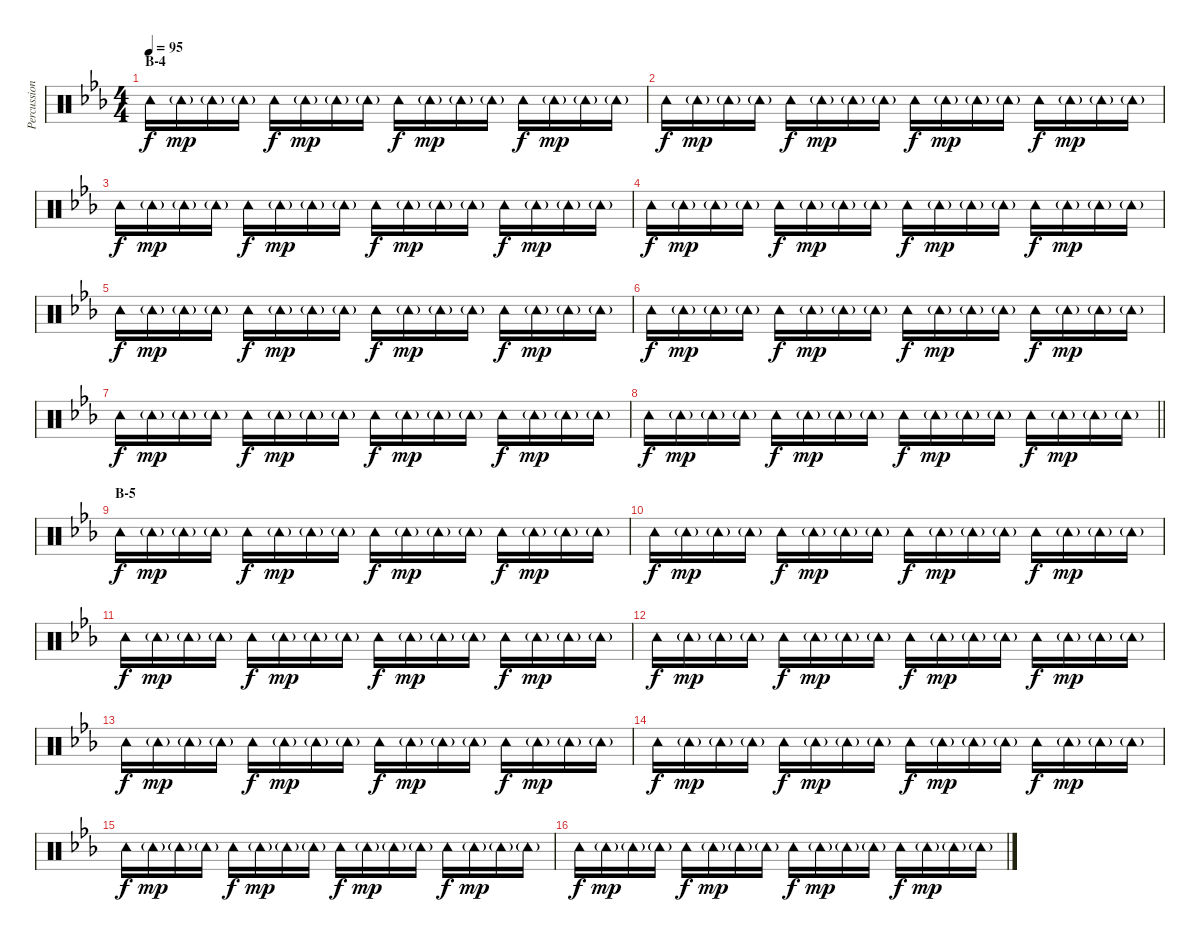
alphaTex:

\track ("Percussion" "Percussion") {instrument percussion}
\staff {score}
\articulation defaults
\ts (4 4)
\section ("" "B-4")
\tempo 95
\clef neutral
\ks cminor "Tambourine (hit)".16{dy f} "Tambourine (hit)"{g}.16{dy mp} "Tambourine (hit)"{g}.16 "Tambourine (hit)"{g}.16 "Tambourine (hit)".16{dy f} "Tambourine (hit)"{g}.16{dy mp} "Tambourine (hit)"{g}.16 "Tambourine (hit)"{g}.16 "Tambourine (hit)".16{dy f} "Tambourine (hit)"{g}.16{dy mp} "Tambourine (hit)"{g}.16 "Tambourine (hit)"{g}.16 "Tambourine (hit)".16{dy f} "Tambourine (hit)"{g}.16{dy mp} "Tambourine (hit)"{g}.16 "Tambourine (hit)"{g}.16
|
"Tambourine (hit)".16{dy f} "Tambourine (hit)"{g}.16{dy mp} "Tambourine (hit)"{g}.16 "Tambourine (hit)"{g}.16 "Tambourine (hit)".16{dy f} "Tambourine (hit)"{g}.16{dy mp} "Tambourine (hit)"{g}.16 "Tambourine (hit)"{g}.16 "Tambourine (hit)".16{dy f} "Tambourine (hit)"{g}.16{dy mp} "Tambourine (hit)"{g}.16 "Tambourine (hit)"{g}.16 "Tambourine (hit)".16{dy f} "Tambourine (hit)"{g}.16{dy mp} "Tambourine (hit)"{g}.16 "Tambourine (hit)"{g}.16 |
"Tambourine (hit)".16{dy f} "Tambourine (hit)"{g}.16{dy mp} "Tambourine (hit)"{g}.16 "Tambourine (hit)"{g}.16 "Tambourine (hit)".16{dy f} "Tambourine (hit)"{g}.16{dy mp} "Tambourine (hit)"{g}.16 "Tambourine (hit)"{g}.16 "Tambourine (hit)".16{dy f} "Tambourine (hit)"{g}.16{dy mp} "Tambourine (hit)"{g}.16 "Tambourine (hit)"{g}.16 "Tambourine (hit)".16{dy f} "Tambourine (hit)"{g}.16{dy mp} "Tambourine (hit)"{g}.16 "Tambourine (hit)"{g}.16 |
"Tambourine (hit)".16{dy f} "Tambourine (hit)"{g}.16{dy mp} "Tambourine (hit)"{g}.16 "Tambourine (hit)"{g}.16 "Tambourine (hit)".16{dy f} "Tambourine (hit)"{g}.16{dy mp} "Tambourine (hit)"{g}.16 "Tambourine (hit)"{g}.16 "Tambourine (hit)".16{dy f} "Tambourine (hit)"{g}.16{dy mp} "Tambourine (hit)"{g}.16 "Tambourine (hit)"{g}.16 "Tambourine (hit)".16{dy f} "Tambourine (hit)"{g}.16{dy mp} "Tambourine (hit)"{g}.16 "Tambourine (hit)"{g}.16 |
"Tambourine (hit)".16{dy f} "Tambourine (hit)"{g}.16{dy mp} "Tambourine (hit)"{g}.16 "Tambourine (hit)"{g}.16 "Tambourine (hit)".16{dy f} "Tambourine (hit)"{g}.16{dy mp} "Tambourine (hit)"{g}.16 "Tambourine (hit)"{g}.16 "Tambourine (hit)".16{dy f} "Tambourine (hit)"{g}.16{dy mp} "Tambourine (hit)"{g}.16 "Tambourine (hit)"{g}.16 "Tambourine (hit)".16{dy f} "Tambourine (hit)"{g}.16{dy mp} "Tambourine (hit)"{g}.16 "Tambourine (hit)"{g}.16 |
"Tambourine (hit)".16{dy f} "Tambourine (hit)"{g}.16{dy mp} "Tambourine (hit)"{g}.16 "Tambourine (hit)"{g}.16 "Tambourine (hit)".16{dy f} "Tambourine (hit)"{g}.16{dy mp} "Tambourine (hit)"{g}.16 "Tambourine (hit)"{g}.16 "Tambourine (hit)".16{dy f} "Tambourine (hit)"{g}.16{dy mp} "Tambourine (hit)"{g}.16 "Tambourine (hit)"{g}.16 "Tambourine (hit)".16{dy f} "Tambourine (hit)"{g}.16{dy mp} "Tambourine (hit)"{g}.16 "Tambourine (hit)"{g}.16 |
"Tambourine (hit)".16{dy f} "Tambourine (hit)"{g}.16{dy mp} "Tambourine (hit)"{g}.16 "Tambourine (hit)"{g}.16 "Tambourine (hit)".16{dy f} "Tambourine (hit)"{g}.16{dy mp} "Tambourine (hit)"{g}.16 "Tambourine (hit)"{g}.16 "Tambourine (hit)".16{dy f} "Tambourine (hit)"{g}.16{dy mp} "Tambourine (hit)"{g}.16 "Tambourine (hit)"{g}.16 "Tambourine (hit)".16{dy f} "Tambourine (hit)"{g}.16{dy mp} "Tambourine (hit)"{g}.16 "Tambourine (hit)"{g}.16 |
\barLineRight lightlight "Tambourine (hit)".16{dy f} "Tambourine (hit)"{g}.16{dy mp} "Tambourine (hit)"{g}.16 "Tambourine (hit)"{g}.16 "Tambourine (hit)".16{dy f} "Tambourine (hit)"{g}.16{dy mp} "Tambourine (hit)"{g}.16 "Tambourine (hit)"{g}.16 "Tambourine (hit)".16{dy f} "Tambourine (hit)"{g}.16{dy mp} "Tambourine (hit)"{g}.16 "Tambourine (hit)"{g}.16 "Tambourine (hit)".16{dy f} "Tambourine (hit)"{g}.16{dy mp} "Tambourine (hit)"{g}.16 "Tambourine (hit)"{g}.16
|
\section ("" "B-5")
"Tambourine (hit)".16{dy f} "Tambourine (hit)"{g}.16{dy mp} "Tambourine (hit)"{g}.16 "Tambourine (hit)"{g}.16 "Tambourine (hit)".16{dy f} "Tambourine (hit)"{g}.16{dy mp} "Tambourine (hit)"{g}.16 "Tambourine (hit)"{g}.16 "Tambourine (hit)".16{dy f} "Tambourine (hit)"{g}.16{dy mp} "Tambourine (hit)"{g}.16 "Tambourine (hit)"{g}.16 "Tambourine (hit)".16{dy f} "Tambourine (hit)"{g}.16{dy mp} "Tambourine (hit)"{g}.16 "Tambourine (hit)"{g}.16 |
"Tambourine (hit)".16{dy f} "Tambourine (hit)"{g}.16{dy mp} "Tambourine (hit)"{g}.16 "Tambourine (hit)"{g}.16 "Tambourine (hit)".16{dy f} "Tambourine (hit)"{g}.16{dy mp} "Tambourine (hit)"{g}.16 "Tambourine (hit)"{g}.16 "Tambourine (hit)".16{dy f} "Tambourine (hit)"{g}.16{dy mp} "Tambourine (hit)"{g}.16 "Tambourine (hit)"{g}.16 "Tambourine (hit)".16{dy f} "Tambourine (hit)"{g}.16{dy mp} "Tambourine (hit)"{g}.16 "Tambourine (hit)"{g}.16 |
"Tambourine (hit)".16{dy f} "Tambourine (hit)"{g}.16{dy mp} "Tambourine (hit)"{g}.16 "Tambourine (hit)"{g}.16 "Tambourine (hit)".16{dy f} "Tambourine (hit)"{g}.16{dy mp} "Tambourine (hit)"{g}.16 "Tambourine (hit)"{g}.16 "Tambourine (hit)".16{dy f} "Tambourine (hit)"{g}.16{dy mp} "Tambourine (hit)"{g}.16 "Tambourine (hit)"{g}.16 "Tambourine (hit)".16{dy f} "Tambourine (hit)"{g}.16{dy mp} "Tambourine (hit)"{g}.16 "Tambourine (hit)"{g}.16 |
"Tambourine (hit)".16{dy f} "Tambourine (hit)"{g}.16{dy mp} "Tambourine (hit)"{g}.16 "Tambourine (hit)"{g}.16 "Tambourine (hit)".16{dy f} "Tambourine (hit)"{g}.16{dy mp} "Tambourine (hit)"{g}.16 "Tambourine (hit)"{g}.16 "Tambourine (hit)".16{dy f} "Tambourine (hit)"{g}.16{dy mp} "Tambourine (hit)"{g}.16 "Tambourine (hit)"{g}.16 "Tambourine (hit)".16{dy f} "Tambourine (hit)"{g}.16{dy mp} "Tambourine (hit)"{g}.16 "Tambourine (hit)"{g}.16 |
"Tambourine (hit)".16{dy f} "Tambourine (hit)"{g}.16{dy mp} "Tambourine (hit)"{g}.16 "Tambourine (hit)"{g}.16 "Tambourine (hit)".16{dy f} "Tambourine (hit)"{g}.16{dy mp} "Tambourine (hit)"{g}.16 "Tambourine (hit)"{g}.16 "Tambourine (hit)".16{dy f} "Tambourine (hit)"{g}.16{dy mp} "Tambourine (hit)"{g}.16 "Tambourine (hit)"{g}.16 "Tambourine (hit)".16{dy f} "Tambourine (hit)"{g}.16{dy mp} "Tambourine (hit)"{g}.16 "Tambourine (hit)"{g}.16 |
"Tambourine (hit)".16{dy f} "Tambourine (hit)"{g}.16{dy mp} "Tambourine (hit)"{g}.16 "Tambourine (hit)"{g}.16 "Tambourine (hit)".16{dy f} "Tambourine (hit)"{g}.16{dy mp} "Tambourine (hit)"{g}.16 "Tambourine (hit)"{g}.16 "Tambourine (hit)".16{dy f} "Tambourine (hit)"{g}.16{dy mp} "Tambourine (hit)"{g}.16 "Tambourine (hit)"{g}.16 "Tambourine (hit)".16{dy f} "Tambourine (hit)"{g}.16{dy mp} "Tambourine (hit)"{g}.16 "Tambourine (hit)"{g}.16 |
"Tambourine (hit)".16{dy f} "Tambourine (hit)"{g}.16{dy mp} "Tambourine (hit)"{g}.16 "Tambourine (hit)"{g}.16 "Tambourine (hit)".16{dy f} "Tambourine (hit)"{g}.16{dy mp} "Tambourine (hit)"{g}.16 "Tambourine (hit)"{g}.16 "Tambourine (hit)".16{dy f} "Tambourine (hit)"{g}.16{dy mp} "Tambourine (hit)"{g}.16 "Tambourine (hit)"{g}.16 "Tambourine (hit)".16{dy f} "Tambourine (hit)"{g}.16{dy mp} "Tambourine (hit)"{g}.16 "Tambourine (hit)"{g}.16 |
"Tambourine (hit)".16{dy f} "Tambourine (hit)"{g}.16{dy mp} "Tambourine (hit)"{g}.16 "Tambourine (hit)"{g}.16 "Tambourine (hit)".16{dy f} "Tambourine (hit)"{g}.16{dy mp} "Tambourine (hit)"{g}.16 "Tambourine (hit)"{g}.16 "Tambourine (hit)".16{dy f} "Tambourine (hit)"{g}.16{dy mp} "Tambourine (hit)"{g}.16 "Tambourine (hit)"{g}.16 "Tambourine (hit)".16{dy f} "Tambourine (hit)"{g}.16{dy mp} "Tambourine (hit)"{g}.16 "Tambourine (hit)"{g}.16
